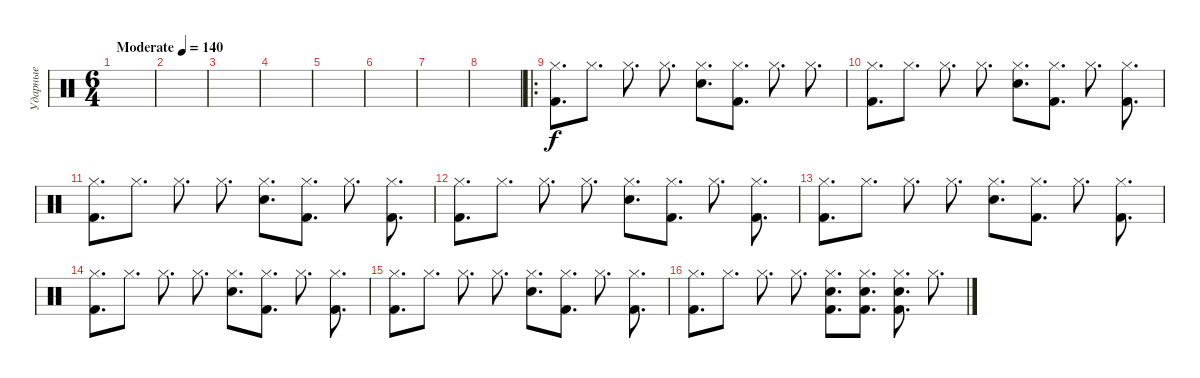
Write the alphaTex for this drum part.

\track ("Ударные" "Ударные") {instrument percussion}
\staff {score}
\articulation defaults
\ts (6 4)
\tempo (140 "Moderate")
\clef neutral
\ks c
|
|
|
|
|
|
|
|
\ro
("Hi-Hat (closed)" "Kick (hit) 2").8{d} "Hi-Hat (closed)".8{d} "Hi-Hat (closed)".8{d} "Hi-Hat (closed)".8{d} ("Hi-Hat (closed)" "Snare (hit) 2").8{d} ("Hi-Hat (closed)" "Kick (hit) 2").8{d} "Hi-Hat (closed)".8{d} "Hi-Hat (closed)".8{d} |
("Hi-Hat (closed)" "Kick (hit) 2").8{d} "Hi-Hat (closed)".8{d} "Hi-Hat (closed)".8{d} "Hi-Hat (closed)".8{d} ("Hi-Hat (closed)" "Snare (hit) 2").8{d} ("Hi-Hat (closed)" "Kick (hit) 2").8{d} "Hi-Hat (closed)".8{d} ("Hi-Hat (closed)" "Kick (hit) 2").8{d} |
("Hi-Hat (closed)" "Kick (hit) 2").8{d} "Hi-Hat (closed)".8{d} "Hi-Hat (closed)".8{d} "Hi-Hat (closed)".8{d} ("Hi-Hat (closed)" "Snare (hit) 2").8{d} ("Hi-Hat (closed)" "Kick (hit) 2").8{d} "Hi-Hat (closed)".8{d} ("Hi-Hat (closed)" "Kick (hit) 2").8{d} |
("Hi-Hat (closed)" "Kick (hit) 2").8{d} "Hi-Hat (closed)".8{d} "Hi-Hat (closed)".8{d} "Hi-Hat (closed)".8{d} ("Hi-Hat (closed)" "Snare (hit) 2").8{d} ("Hi-Hat (closed)" "Kick (hit) 2").8{d} "Hi-Hat (closed)".8{d} ("Hi-Hat (closed)" "Kick (hit) 2").8{d} |
("Hi-Hat (closed)" "Kick (hit) 2").8{d} "Hi-Hat (closed)".8{d} "Hi-Hat (closed)".8{d} "Hi-Hat (closed)".8{d} ("Hi-Hat (closed)" "Snare (hit) 2").8{d} ("Hi-Hat (closed)" "Kick (hit) 2").8{d} "Hi-Hat (closed)".8{d} ("Hi-Hat (closed)" "Kick (hit) 2").8{d} |
("Hi-Hat (closed)" "Kick (hit) 2").8{d} "Hi-Hat (closed)".8{d} "Hi-Hat (closed)".8{d} "Hi-Hat (closed)".8{d} ("Hi-Hat (closed)" "Snare (hit) 2").8{d} ("Hi-Hat (closed)" "Kick (hit) 2").8{d} "Hi-Hat (closed)".8{d} ("Hi-Hat (closed)" "Kick (hit) 2").8{d} |
("Hi-Hat (closed)" "Kick (hit) 2").8{d} "Hi-Hat (closed)".8{d} "Hi-Hat (closed)".8{d} "Hi-Hat (closed)".8{d} ("Hi-Hat (closed)" "Snare (hit) 2").8{d} ("Hi-Hat (closed)" "Kick (hit) 2").8{d} "Hi-Hat (closed)".8{d} ("Hi-Hat (closed)" "Kick (hit) 2").8{d} |
("Hi-Hat (closed)" "Kick (hit) 2").8{d} "Hi-Hat (closed)".8{d} "Hi-Hat (closed)".8{d} "Hi-Hat (closed)".8{d} ("Hi-Hat (closed)" "Kick (hit) 2" "Snare (hit) 2").8{d} ("Hi-Hat (closed)" "Kick (hit) 2" "Snare (hit) 2").8{d} ("Hi-Hat (closed)" "Snare (hit) 2" "Kick (hit) 2").8{d} "Hi-Hat (closed)".8{d}
